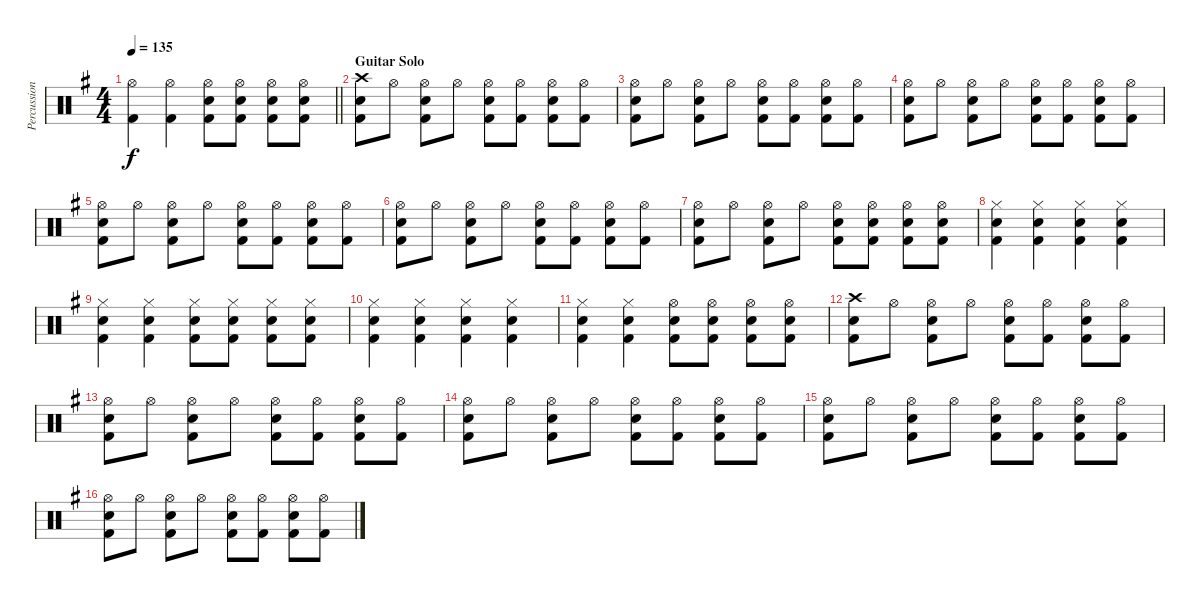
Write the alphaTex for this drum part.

\track ("Percussion" "Percussion") {instrument percussion}
\staff {score}
\articulation defaults
\ts (4 4)
\tempo 135
\clef neutral
\barLineRight lightlight
\ks g
("Hi-Hat (open)" "Kick (hit) 2").4{dy f} ("Hi-Hat (open)" "Kick (hit) 2").4 ("Hi-Hat (open)" "Snare (hit) 2" "Kick (hit) 2").8 ("Hi-Hat (open)" "Snare (hit) 2" "Kick (hit) 2").8 ("Hi-Hat (open)" "Snare (hit) 2" "Kick (hit) 2").8 ("Hi-Hat (open)" "Snare (hit) 2" "Kick (hit) 2").8 |
\section ("" "Guitar Solo")
("Crash high (hit)" "Snare (hit) 2" "Kick (hit) 2").8 "Hi-Hat (open)".8 ("Hi-Hat (open)" "Snare (hit) 2" "Kick (hit) 2").8 "Hi-Hat (open)".8 ("Hi-Hat (open)" "Snare (hit) 2" "Kick (hit) 2").8 ("Hi-Hat (open)" "Kick (hit) 2").8 ("Hi-Hat (open)" "Snare (hit) 2" "Kick (hit) 2").8 ("Hi-Hat (open)" "Kick (hit) 2").8 |
("Hi-Hat (open)" "Snare (hit) 2" "Kick (hit) 2").8 "Hi-Hat (open)".8 ("Hi-Hat (open)" "Snare (hit) 2" "Kick (hit) 2").8 "Hi-Hat (open)".8 ("Hi-Hat (open)" "Snare (hit) 2" "Kick (hit) 2").8 ("Hi-Hat (open)" "Kick (hit) 2").8 ("Hi-Hat (open)" "Snare (hit) 2" "Kick (hit) 2").8 ("Hi-Hat (open)" "Kick (hit) 2").8 |
("Hi-Hat (open)" "Snare (hit) 2" "Kick (hit) 2").8 "Hi-Hat (open)".8 ("Hi-Hat (open)" "Snare (hit) 2" "Kick (hit) 2").8 "Hi-Hat (open)".8 ("Hi-Hat (open)" "Snare (hit) 2" "Kick (hit) 2").8 ("Hi-Hat (open)" "Kick (hit) 2").8 ("Hi-Hat (open)" "Snare (hit) 2" "Kick (hit) 2").8 ("Hi-Hat (open)" "Kick (hit) 2").8 |
("Hi-Hat (open)" "Snare (hit) 2" "Kick (hit) 2").8 "Hi-Hat (open)".8 ("Hi-Hat (open)" "Snare (hit) 2" "Kick (hit) 2").8 "Hi-Hat (open)".8 ("Hi-Hat (open)" "Snare (hit) 2" "Kick (hit) 2").8 ("Hi-Hat (open)" "Kick (hit) 2").8 ("Hi-Hat (open)" "Snare (hit) 2" "Kick (hit) 2").8 ("Hi-Hat (open)" "Kick (hit) 2").8 |
("Hi-Hat (open)" "Snare (hit) 2" "Kick (hit) 2").8 "Hi-Hat (open)".8 ("Hi-Hat (open)" "Snare (hit) 2" "Kick (hit) 2").8 "Hi-Hat (open)".8 ("Hi-Hat (open)" "Snare (hit) 2" "Kick (hit) 2").8 ("Hi-Hat (open)" "Kick (hit) 2").8 ("Hi-Hat (open)" "Snare (hit) 2" "Kick (hit) 2").8 ("Hi-Hat (open)" "Kick (hit) 2").8 |
("Hi-Hat (open)" "Snare (hit) 2" "Kick (hit) 2").8 "Hi-Hat (open)".8 ("Hi-Hat (open)" "Snare (hit) 2" "Kick (hit) 2").8 "Hi-Hat (open)".8 ("Hi-Hat (open)" "Snare (hit) 2" "Kick (hit) 2").8 ("Hi-Hat (open)" "Snare (hit) 2" "Kick (hit) 2").8 ("Hi-Hat (open)" "Snare (hit) 2" "Kick (hit) 2").8 ("Hi-Hat (open)" "Snare (hit) 2" "Kick (hit) 2").8 |
("Hi-Hat (closed)" "Snare (hit) 2" "Kick (hit) 2").4 ("Hi-Hat (closed)" "Snare (hit) 2" "Kick (hit) 2").4 ("Hi-Hat (closed)" "Snare (hit) 2" "Kick (hit) 2").4 ("Hi-Hat (closed)" "Snare (hit) 2" "Kick (hit) 2").4 |
("Hi-Hat (closed)" "Snare (hit) 2" "Kick (hit) 2").4 ("Hi-Hat (closed)" "Snare (hit) 2" "Kick (hit) 2").4 ("Hi-Hat (closed)" "Snare (hit) 2" "Kick (hit) 2").8 ("Hi-Hat (closed)" "Snare (hit) 2" "Kick (hit) 2").8 ("Hi-Hat (closed)" "Snare (hit) 2" "Kick (hit) 2").8 ("Hi-Hat (closed)" "Snare (hit) 2" "Kick (hit) 2").8 |
("Hi-Hat (closed)" "Snare (hit) 2" "Kick (hit) 2").4 ("Hi-Hat (closed)" "Snare (hit) 2" "Kick (hit) 2").4 ("Hi-Hat (closed)" "Snare (hit) 2" "Kick (hit) 2").4 ("Hi-Hat (closed)" "Snare (hit) 2" "Kick (hit) 2").4 |
("Hi-Hat (closed)" "Snare (hit) 2" "Kick (hit) 2").4 ("Hi-Hat (closed)" "Snare (hit) 2" "Kick (hit) 2").4 ("Hi-Hat (open)" "Snare (hit) 2" "Kick (hit) 2").8 ("Hi-Hat (open)" "Snare (hit) 2" "Kick (hit) 2").8 ("Hi-Hat (open)" "Snare (hit) 2" "Kick (hit) 2").8 ("Hi-Hat (open)" "Snare (hit) 2" "Kick (hit) 2").8 |
("Crash high (hit)" "Snare (hit) 2" "Kick (hit) 2").8 "Hi-Hat (open)".8 ("Hi-Hat (open)" "Snare (hit) 2" "Kick (hit) 2").8 "Hi-Hat (open)".8 ("Hi-Hat (open)" "Snare (hit) 2" "Kick (hit) 2").8 ("Hi-Hat (open)" "Kick (hit) 2").8 ("Hi-Hat (open)" "Snare (hit) 2" "Kick (hit) 2").8 ("Hi-Hat (open)" "Kick (hit) 2").8 |
("Hi-Hat (open)" "Snare (hit) 2" "Kick (hit) 2").8 "Hi-Hat (open)".8 ("Hi-Hat (open)" "Snare (hit) 2" "Kick (hit) 2").8 "Hi-Hat (open)".8 ("Hi-Hat (open)" "Snare (hit) 2" "Kick (hit) 2").8 ("Hi-Hat (open)" "Kick (hit) 2").8 ("Hi-Hat (open)" "Snare (hit) 2" "Kick (hit) 2").8 ("Hi-Hat (open)" "Kick (hit) 2").8 |
("Hi-Hat (open)" "Snare (hit) 2" "Kick (hit) 2").8 "Hi-Hat (open)".8 ("Hi-Hat (open)" "Snare (hit) 2" "Kick (hit) 2").8 "Hi-Hat (open)".8 ("Hi-Hat (open)" "Snare (hit) 2" "Kick (hit) 2").8 ("Hi-Hat (open)" "Kick (hit) 2").8 ("Hi-Hat (open)" "Snare (hit) 2" "Kick (hit) 2").8 ("Hi-Hat (open)" "Kick (hit) 2").8 |
("Hi-Hat (open)" "Snare (hit) 2" "Kick (hit) 2").8 "Hi-Hat (open)".8 ("Hi-Hat (open)" "Snare (hit) 2" "Kick (hit) 2").8 "Hi-Hat (open)".8 ("Hi-Hat (open)" "Snare (hit) 2" "Kick (hit) 2").8 ("Hi-Hat (open)" "Kick (hit) 2").8 ("Hi-Hat (open)" "Snare (hit) 2" "Kick (hit) 2").8 ("Hi-Hat (open)" "Kick (hit) 2").8 |
("Hi-Hat (open)" "Snare (hit) 2" "Kick (hit) 2").8 "Hi-Hat (open)".8 ("Hi-Hat (open)" "Snare (hit) 2" "Kick (hit) 2").8 "Hi-Hat (open)".8 ("Hi-Hat (open)" "Snare (hit) 2" "Kick (hit) 2").8 ("Hi-Hat (open)" "Kick (hit) 2").8 ("Hi-Hat (open)" "Snare (hit) 2" "Kick (hit) 2").8 ("Hi-Hat (open)" "Kick (hit) 2").8
